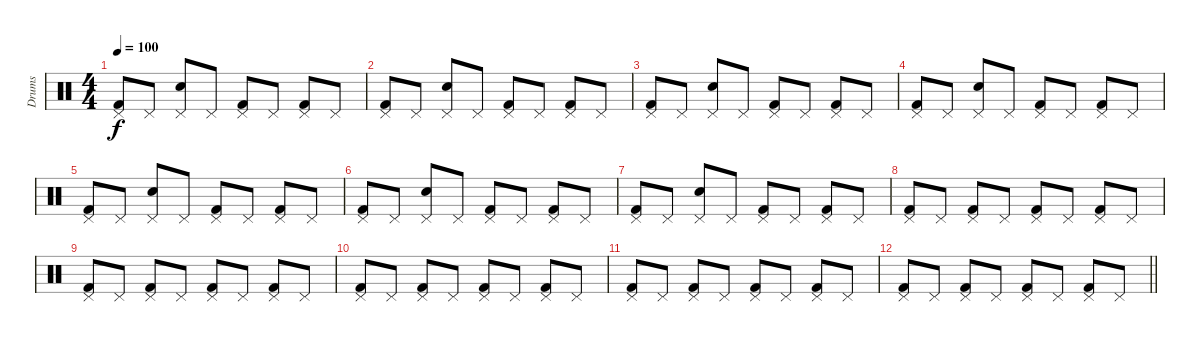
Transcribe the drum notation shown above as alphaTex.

\track ("Drums" "Drums") {instrument percussion}
\staff {score}
\articulation defaults
\ts (4 4)
\tempo 100
\clef neutral
\ks c
("Pedal Hi-Hat (hit)" "Kick (hit) 2").8{dy f} "Pedal Hi-Hat (hit)".8 ("Pedal Hi-Hat (hit)" "Electric Snare (hit)").8 "Pedal Hi-Hat (hit)".8 ("Pedal Hi-Hat (hit)" "Kick (hit) 2").8 "Pedal Hi-Hat (hit)".8 ("Pedal Hi-Hat (hit)" "Kick (hit) 2").8 "Pedal Hi-Hat (hit)".8 |
("Pedal Hi-Hat (hit)" "Kick (hit) 2").8 "Pedal Hi-Hat (hit)".8 ("Pedal Hi-Hat (hit)" "Electric Snare (hit)").8 "Pedal Hi-Hat (hit)".8 ("Pedal Hi-Hat (hit)" "Kick (hit) 2").8 "Pedal Hi-Hat (hit)".8 ("Pedal Hi-Hat (hit)" "Kick (hit) 2").8 "Pedal Hi-Hat (hit)".8 |
("Pedal Hi-Hat (hit)" "Kick (hit) 2").8 "Pedal Hi-Hat (hit)".8 ("Pedal Hi-Hat (hit)" "Electric Snare (hit)").8 "Pedal Hi-Hat (hit)".8 ("Pedal Hi-Hat (hit)" "Kick (hit) 2").8 "Pedal Hi-Hat (hit)".8 ("Pedal Hi-Hat (hit)" "Kick (hit) 2").8 "Pedal Hi-Hat (hit)".8 |
("Pedal Hi-Hat (hit)" "Kick (hit) 2").8 "Pedal Hi-Hat (hit)".8 ("Pedal Hi-Hat (hit)" "Electric Snare (hit)").8 "Pedal Hi-Hat (hit)".8 ("Pedal Hi-Hat (hit)" "Kick (hit) 2").8 "Pedal Hi-Hat (hit)".8 ("Pedal Hi-Hat (hit)" "Kick (hit) 2").8 "Pedal Hi-Hat (hit)".8 |
("Pedal Hi-Hat (hit)" "Kick (hit) 2").8 "Pedal Hi-Hat (hit)".8 ("Pedal Hi-Hat (hit)" "Electric Snare (hit)").8 "Pedal Hi-Hat (hit)".8 ("Pedal Hi-Hat (hit)" "Kick (hit) 2").8 "Pedal Hi-Hat (hit)".8 ("Pedal Hi-Hat (hit)" "Kick (hit) 2").8 "Pedal Hi-Hat (hit)".8 |
("Pedal Hi-Hat (hit)" "Kick (hit) 2").8 "Pedal Hi-Hat (hit)".8 ("Pedal Hi-Hat (hit)" "Electric Snare (hit)").8 "Pedal Hi-Hat (hit)".8 ("Pedal Hi-Hat (hit)" "Kick (hit) 2").8 "Pedal Hi-Hat (hit)".8 ("Pedal Hi-Hat (hit)" "Kick (hit) 2").8 "Pedal Hi-Hat (hit)".8 |
("Pedal Hi-Hat (hit)" "Kick (hit) 2").8 "Pedal Hi-Hat (hit)".8 ("Pedal Hi-Hat (hit)" "Electric Snare (hit)").8 "Pedal Hi-Hat (hit)".8 ("Pedal Hi-Hat (hit)" "Kick (hit) 2").8 "Pedal Hi-Hat (hit)".8 ("Pedal Hi-Hat (hit)" "Kick (hit) 2").8 "Pedal Hi-Hat (hit)".8 |
("Pedal Hi-Hat (hit)" "Kick (hit) 2").8 "Pedal Hi-Hat (hit)".8 ("Pedal Hi-Hat (hit)" "Kick (hit) 2").8 "Pedal Hi-Hat (hit)".8 ("Pedal Hi-Hat (hit)" "Kick (hit) 2").8 "Pedal Hi-Hat (hit)".8 ("Pedal Hi-Hat (hit)" "Kick (hit) 2").8 "Pedal Hi-Hat (hit)".8 |
("Pedal Hi-Hat (hit)" "Kick (hit) 2").8 "Pedal Hi-Hat (hit)".8 ("Pedal Hi-Hat (hit)" "Kick (hit) 2").8 "Pedal Hi-Hat (hit)".8 ("Pedal Hi-Hat (hit)" "Kick (hit) 2").8 "Pedal Hi-Hat (hit)".8 ("Pedal Hi-Hat (hit)" "Kick (hit) 2").8 "Pedal Hi-Hat (hit)".8 |
("Pedal Hi-Hat (hit)" "Kick (hit) 2").8 "Pedal Hi-Hat (hit)".8 ("Pedal Hi-Hat (hit)" "Kick (hit) 2").8 "Pedal Hi-Hat (hit)".8 ("Pedal Hi-Hat (hit)" "Kick (hit) 2").8 "Pedal Hi-Hat (hit)".8 ("Pedal Hi-Hat (hit)" "Kick (hit) 2").8 "Pedal Hi-Hat (hit)".8 |
("Pedal Hi-Hat (hit)" "Kick (hit) 2").8 "Pedal Hi-Hat (hit)".8 ("Pedal Hi-Hat (hit)" "Kick (hit) 2").8 "Pedal Hi-Hat (hit)".8 ("Pedal Hi-Hat (hit)" "Kick (hit) 2").8 "Pedal Hi-Hat (hit)".8 ("Pedal Hi-Hat (hit)" "Kick (hit) 2").8 "Pedal Hi-Hat (hit)".8 |
\barLineRight lightlight
("Pedal Hi-Hat (hit)" "Kick (hit) 2").8 "Pedal Hi-Hat (hit)".8 ("Pedal Hi-Hat (hit)" "Kick (hit) 2").8 "Pedal Hi-Hat (hit)".8 ("Pedal Hi-Hat (hit)" "Kick (hit) 2").8 "Pedal Hi-Hat (hit)".8 ("Pedal Hi-Hat (hit)" "Kick (hit) 2").8 "Pedal Hi-Hat (hit)".8
